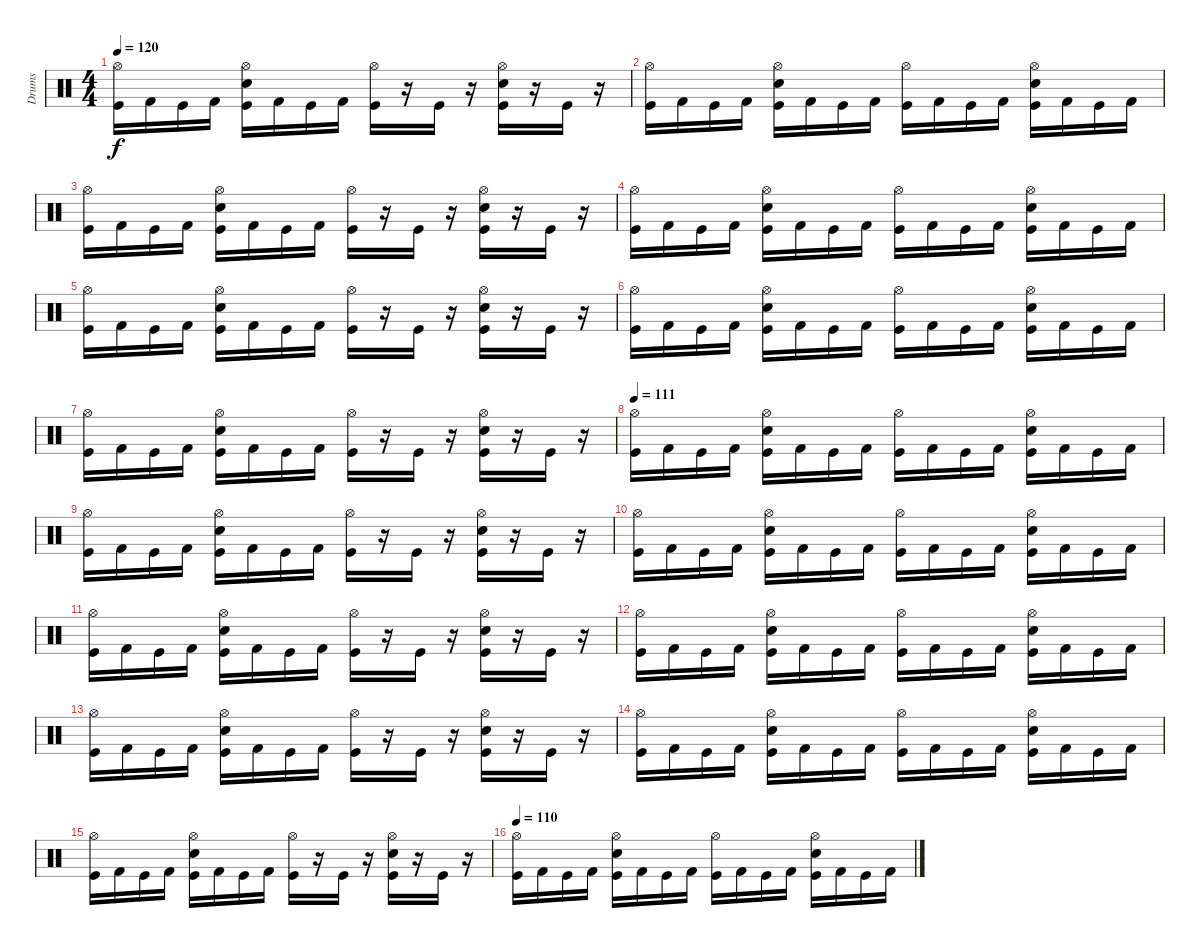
\track ("Drums" "Drums") {instrument percussion}
\staff {score}
\articulation defaults
\ts (4 4)
\tempo 120
\clef neutral
\ks c
("Hi-Hat (open)" "Kick (hit)").16{dy f} "Kick (hit) 2".16 "Kick (hit)".16 "Kick (hit) 2".16 ("Hi-Hat (open)" "Snare (hit) 2" "Kick (hit)").16 "Kick (hit) 2".16 "Kick (hit)".16 "Kick (hit) 2".16 ("Hi-Hat (open)" "Kick (hit)").16 r.16 "Kick (hit)".16 r.16 ("Hi-Hat (open)" "Snare (hit) 2" "Kick (hit)").16 r.16 "Kick (hit)".16 r.16 |
("Hi-Hat (open)" "Kick (hit)").16 "Kick (hit) 2".16 "Kick (hit)".16 "Kick (hit) 2".16 ("Hi-Hat (open)" "Snare (hit) 2" "Kick (hit)").16 "Kick (hit) 2".16 "Kick (hit)".16 "Kick (hit) 2".16 ("Hi-Hat (open)" "Kick (hit)").16 "Kick (hit) 2".16 "Kick (hit)".16 "Kick (hit) 2".16 ("Hi-Hat (open)" "Snare (hit) 2" "Kick (hit)").16 "Kick (hit) 2".16 "Kick (hit)".16 "Kick (hit) 2".16 |
("Hi-Hat (open)" "Kick (hit)").16 "Kick (hit) 2".16 "Kick (hit)".16 "Kick (hit) 2".16 ("Hi-Hat (open)" "Snare (hit) 2" "Kick (hit)").16 "Kick (hit) 2".16 "Kick (hit)".16 "Kick (hit) 2".16 ("Hi-Hat (open)" "Kick (hit)").16 r.16 "Kick (hit)".16 r.16 ("Hi-Hat (open)" "Snare (hit) 2" "Kick (hit)").16 r.16 "Kick (hit)".16 r.16 |
("Hi-Hat (open)" "Kick (hit)").16 "Kick (hit) 2".16 "Kick (hit)".16 "Kick (hit) 2".16 ("Hi-Hat (open)" "Snare (hit) 2" "Kick (hit)").16 "Kick (hit) 2".16 "Kick (hit)".16 "Kick (hit) 2".16 ("Hi-Hat (open)" "Kick (hit)").16 "Kick (hit) 2".16 "Kick (hit)".16 "Kick (hit) 2".16 ("Hi-Hat (open)" "Snare (hit) 2" "Kick (hit)").16 "Kick (hit) 2".16 "Kick (hit)".16 "Kick (hit) 2".16 |
("Hi-Hat (open)" "Kick (hit)").16 "Kick (hit) 2".16 "Kick (hit)".16 "Kick (hit) 2".16 ("Hi-Hat (open)" "Snare (hit) 2" "Kick (hit)").16 "Kick (hit) 2".16 "Kick (hit)".16 "Kick (hit) 2".16 ("Hi-Hat (open)" "Kick (hit)").16 r.16 "Kick (hit)".16 r.16 ("Hi-Hat (open)" "Snare (hit) 2" "Kick (hit)").16 r.16 "Kick (hit)".16 r.16 |
("Hi-Hat (open)" "Kick (hit)").16 "Kick (hit) 2".16 "Kick (hit)".16 "Kick (hit) 2".16 ("Hi-Hat (open)" "Snare (hit) 2" "Kick (hit)").16 "Kick (hit) 2".16 "Kick (hit)".16 "Kick (hit) 2".16 ("Hi-Hat (open)" "Kick (hit)").16 "Kick (hit) 2".16 "Kick (hit)".16 "Kick (hit) 2".16 ("Hi-Hat (open)" "Snare (hit) 2" "Kick (hit)").16 "Kick (hit) 2".16 "Kick (hit)".16 "Kick (hit) 2".16 |
("Hi-Hat (open)" "Kick (hit)").16 "Kick (hit) 2".16 "Kick (hit)".16 "Kick (hit) 2".16 ("Hi-Hat (open)" "Snare (hit) 2" "Kick (hit)").16 "Kick (hit) 2".16 "Kick (hit)".16 "Kick (hit) 2".16 ("Hi-Hat (open)" "Kick (hit)").16 r.16 "Kick (hit)".16 r.16 ("Hi-Hat (open)" "Snare (hit) 2" "Kick (hit)").16 r.16 "Kick (hit)".16 r.16 |
\tempo 111
("Hi-Hat (open)" "Kick (hit)").16 "Kick (hit) 2".16 "Kick (hit)".16 "Kick (hit) 2".16 ("Hi-Hat (open)" "Snare (hit) 2" "Kick (hit)").16 "Kick (hit) 2".16 "Kick (hit)".16 "Kick (hit) 2".16 ("Hi-Hat (open)" "Kick (hit)").16 "Kick (hit) 2".16 "Kick (hit)".16 "Kick (hit) 2".16 ("Hi-Hat (open)" "Snare (hit) 2" "Kick (hit)").16 "Kick (hit) 2".16 "Kick (hit)".16 "Kick (hit) 2".16 |
("Hi-Hat (open)" "Kick (hit)").16 "Kick (hit) 2".16 "Kick (hit)".16 "Kick (hit) 2".16 ("Hi-Hat (open)" "Snare (hit) 2" "Kick (hit)").16 "Kick (hit) 2".16 "Kick (hit)".16 "Kick (hit) 2".16 ("Hi-Hat (open)" "Kick (hit)").16 r.16 "Kick (hit)".16 r.16 ("Hi-Hat (open)" "Snare (hit) 2" "Kick (hit)").16 r.16 "Kick (hit)".16 r.16 |
("Hi-Hat (open)" "Kick (hit)").16 "Kick (hit) 2".16 "Kick (hit)".16 "Kick (hit) 2".16 ("Hi-Hat (open)" "Snare (hit) 2" "Kick (hit)").16 "Kick (hit) 2".16 "Kick (hit)".16 "Kick (hit) 2".16 ("Hi-Hat (open)" "Kick (hit)").16 "Kick (hit) 2".16 "Kick (hit)".16 "Kick (hit) 2".16 ("Hi-Hat (open)" "Snare (hit) 2" "Kick (hit)").16 "Kick (hit) 2".16 "Kick (hit)".16 "Kick (hit) 2".16 |
("Hi-Hat (open)" "Kick (hit)").16 "Kick (hit) 2".16 "Kick (hit)".16 "Kick (hit) 2".16 ("Hi-Hat (open)" "Snare (hit) 2" "Kick (hit)").16 "Kick (hit) 2".16 "Kick (hit)".16 "Kick (hit) 2".16 ("Hi-Hat (open)" "Kick (hit)").16 r.16 "Kick (hit)".16 r.16 ("Hi-Hat (open)" "Snare (hit) 2" "Kick (hit)").16 r.16 "Kick (hit)".16 r.16 |
("Hi-Hat (open)" "Kick (hit)").16 "Kick (hit) 2".16 "Kick (hit)".16 "Kick (hit) 2".16 ("Hi-Hat (open)" "Snare (hit) 2" "Kick (hit)").16 "Kick (hit) 2".16 "Kick (hit)".16 "Kick (hit) 2".16 ("Hi-Hat (open)" "Kick (hit)").16 "Kick (hit) 2".16 "Kick (hit)".16 "Kick (hit) 2".16 ("Hi-Hat (open)" "Snare (hit) 2" "Kick (hit)").16 "Kick (hit) 2".16 "Kick (hit)".16 "Kick (hit) 2".16 |
("Hi-Hat (open)" "Kick (hit)").16 "Kick (hit) 2".16 "Kick (hit)".16 "Kick (hit) 2".16 ("Hi-Hat (open)" "Snare (hit) 2" "Kick (hit)").16 "Kick (hit) 2".16 "Kick (hit)".16 "Kick (hit) 2".16 ("Hi-Hat (open)" "Kick (hit)").16 r.16 "Kick (hit)".16 r.16 ("Hi-Hat (open)" "Snare (hit) 2" "Kick (hit)").16 r.16 "Kick (hit)".16 r.16 |
("Hi-Hat (open)" "Kick (hit)").16 "Kick (hit) 2".16 "Kick (hit)".16 "Kick (hit) 2".16 ("Hi-Hat (open)" "Snare (hit) 2" "Kick (hit)").16 "Kick (hit) 2".16 "Kick (hit)".16 "Kick (hit) 2".16 ("Hi-Hat (open)" "Kick (hit)").16 "Kick (hit) 2".16 "Kick (hit)".16 "Kick (hit) 2".16 ("Hi-Hat (open)" "Snare (hit) 2" "Kick (hit)").16 "Kick (hit) 2".16 "Kick (hit)".16 "Kick (hit) 2".16 |
("Hi-Hat (open)" "Kick (hit)").16 "Kick (hit) 2".16 "Kick (hit)".16 "Kick (hit) 2".16 ("Hi-Hat (open)" "Snare (hit) 2" "Kick (hit)").16 "Kick (hit) 2".16 "Kick (hit)".16 "Kick (hit) 2".16 ("Hi-Hat (open)" "Kick (hit)").16 r.16 "Kick (hit)".16 r.16 ("Hi-Hat (open)" "Snare (hit) 2" "Kick (hit)").16 r.16 "Kick (hit)".16 r.16 |
\tempo 110
("Hi-Hat (open)" "Kick (hit)").16 "Kick (hit) 2".16 "Kick (hit)".16 "Kick (hit) 2".16 ("Hi-Hat (open)" "Snare (hit) 2" "Kick (hit)").16 "Kick (hit) 2".16 "Kick (hit)".16 "Kick (hit) 2".16 ("Hi-Hat (open)" "Kick (hit)").16 "Kick (hit) 2".16 "Kick (hit)".16 "Kick (hit) 2".16 ("Hi-Hat (open)" "Snare (hit) 2" "Kick (hit)").16 "Kick (hit) 2".16 "Kick (hit)".16 "Kick (hit) 2".16
